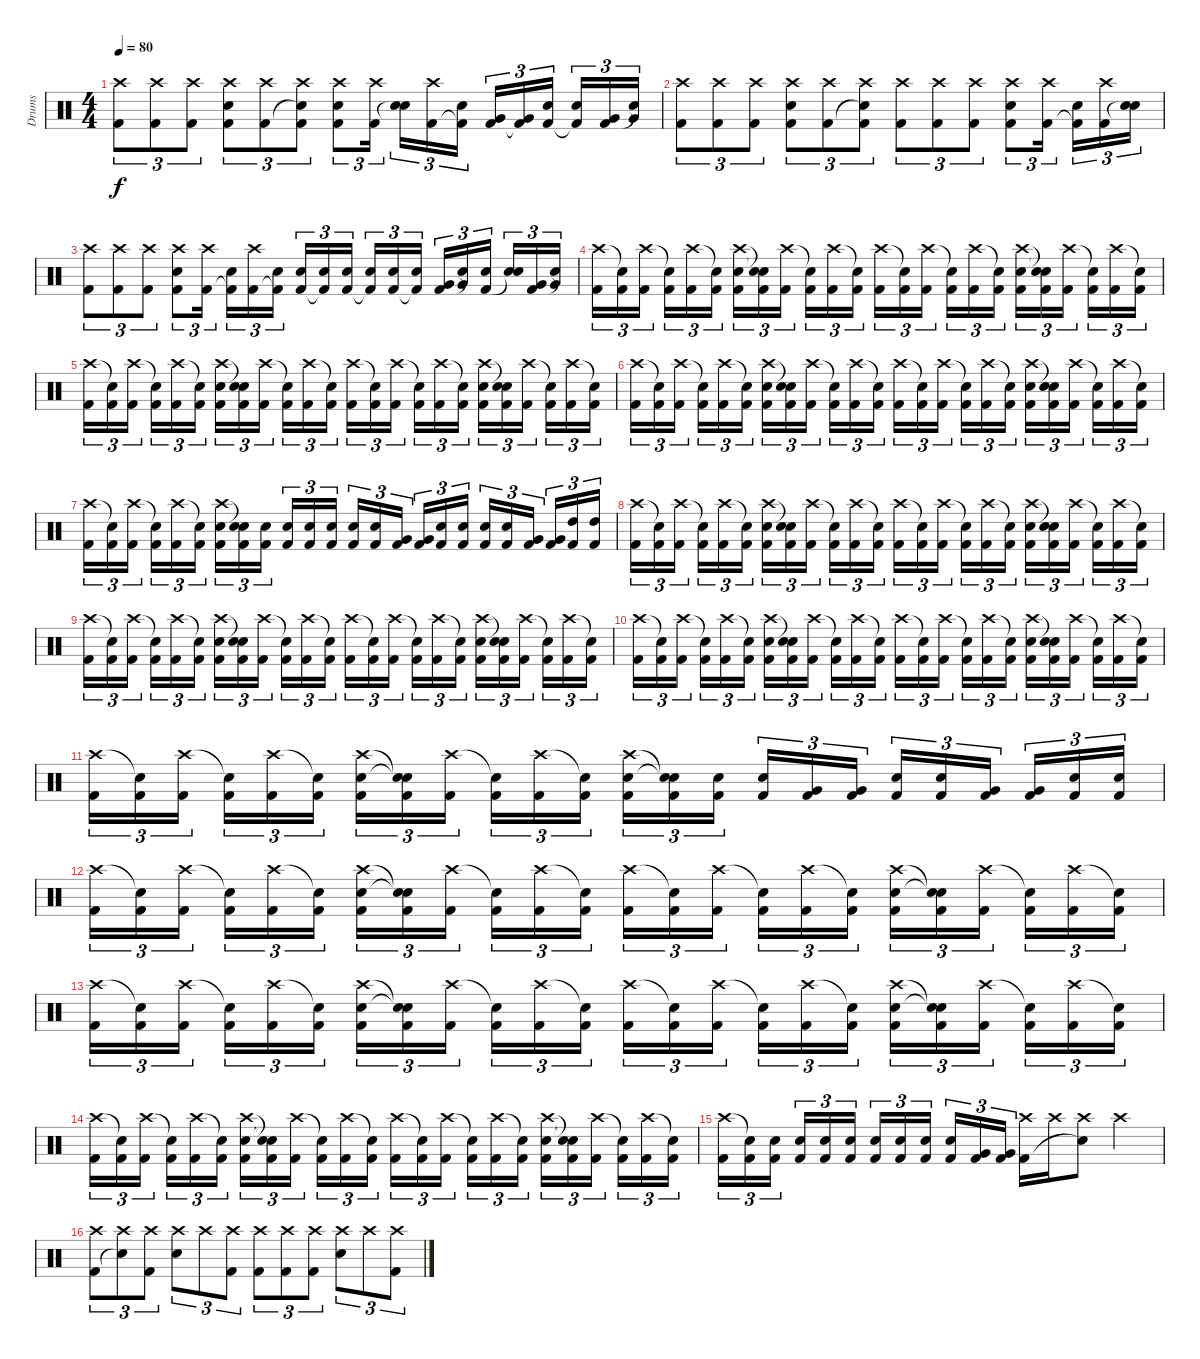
\track ("Drums" "Drums") {instrument percussion}
\staff {score}
\articulation defaults
\ts (4 4)
\tempo 80
\clef neutral
\ks c
("Crash high (hit)" "Kick (hit) 2").8{tu (3 2) dy f} ("Crash high (hit)" "Kick (hit) 2").8{tu (3 2)} ("Crash high (hit)" "Kick (hit) 2").8{tu (3 2)} ("Crash high (hit)" "Snare (hit) 2" "Kick (hit) 2").8{tu (3 2)} ("Crash high (hit)" "Kick (hit) 2").8{tu (3 2)} ("Crash high (hit)" "Snare (hit)"{t} "Kick (hit) 2").8{tu (3 2)} ("Crash high (hit)" "Snare (hit) 2" "Kick (hit) 2").8{tu (3 2)} ("Crash high (hit)" "Kick (hit) 2").16{tu (3 2)} ("Snare (hit) 2" "Snare (hit)"{t}).16{tu (3 2)} ("Crash high (hit)" "Kick (hit) 2").16{tu (3 2)} ("Snare (hit) 2" "Kick (hit) 2"{t}).16{tu (3 2)} ("Very Low Tom (hit)" "Kick (hit) 2").16{tu (3 2)} ("Very Low Tom (hit)" "Kick (hit) 2"{t}).16{tu (3 2)} ("Snare (hit) 2" "Kick (hit) 2").16{tu (3 2)} ("Snare (hit) 2" "Kick (hit) 2"{t}).16{tu (3 2)} ("Very Low Tom (hit)" "Kick (hit) 2").16{tu (3 2)} ("Very Low Tom (hit)" "Snare (hit)"{t}).16{tu (3 2)} |
("Crash high (hit)" "Kick (hit) 2").8{tu (3 2)} ("Crash high (hit)" "Kick (hit) 2").8{tu (3 2)} ("Crash high (hit)" "Kick (hit) 2").8{tu (3 2)} ("Crash high (hit)" "Snare (hit) 2" "Kick (hit) 2").8{tu (3 2)} ("Crash high (hit)" "Kick (hit) 2").8{tu (3 2)} ("Crash high (hit)" "Snare (hit)"{t} "Kick (hit) 2").8{tu (3 2)} ("Crash high (hit)" "Kick (hit) 2").8{tu (3 2)} ("Crash high (hit)" "Kick (hit) 2").8{tu (3 2)} ("Crash high (hit)" "Kick (hit) 2").8{tu (3 2)} ("Crash high (hit)" "Snare (hit) 2" "Kick (hit) 2").8{tu (3 2)} ("Crash high (hit)" "Kick (hit) 2").16{tu (3 2)} ("Snare (hit) 2" "Kick (hit) 2"{t}).16{tu (3 2)} ("Crash high (hit)" "Kick (hit) 2").16{tu (3 2)} ("Snare (hit) 2" "Snare (hit)"{t}).16{tu (3 2)} |
("Crash high (hit)" "Kick (hit) 2").8{tu (3 2)} ("Crash high (hit)" "Kick (hit) 2").8{tu (3 2)} ("Crash high (hit)" "Kick (hit) 2").8{tu (3 2)} ("Crash high (hit)" "Snare (hit) 2" "Kick (hit) 2").8{tu (3 2)} ("Crash high (hit)" "Kick (hit) 2").16{tu (3 2)} ("Snare (hit) 2" "Kick (hit) 2"{t}).16{tu (3 2)} ("Crash high (hit)" "Kick (hit) 2").16{tu (3 2)} ("Snare (hit) 2" "Kick (hit) 2"{t}).16{tu (3 2)} ("Snare (hit) 2" "Kick (hit) 2").16{tu (3 2)} ("Snare (hit) 2" "Kick (hit) 2"{t}).16{tu (3 2)} ("Snare (hit) 2" "Kick (hit) 2").16{tu (3 2)} ("Snare (hit) 2" "Kick (hit) 2"{t}).16{tu (3 2)} ("Snare (hit) 2" "Kick (hit) 2").16{tu (3 2)} ("Snare (hit) 2" "Kick (hit) 2"{t}).16{tu (3 2)} ("Very Low Tom (hit)" "Kick (hit) 2").16{tu (3 2)} ("Very Low Tom (hit)" "Snare (hit)"{t}).16{tu (3 2)} ("Snare (hit) 2" "Kick (hit) 2").16{tu (3 2)} ("Snare (hit) 2" "Snare (hit)"{t}).16{tu (3 2)} ("Very Low Tom (hit)" "Kick (hit) 2").16{tu (3 2)} ("Very Low Tom (hit)" "Snare (hit)"{t}).16{tu (3 2)} |
("Crash high (hit)" "Kick (hit) 2").16{tu (3 2)} ("Snare (hit)"{t} "Kick (hit) 2").16{tu (3 2)} ("Crash high (hit)" "Kick (hit) 2").16{tu (3 2)} ("Snare (hit)"{t} "Kick (hit) 2").16{tu (3 2)} ("Crash high (hit)" "Kick (hit) 2").16{tu (3 2)} ("Snare (hit)"{t} "Kick (hit) 2").16{tu (3 2)} ("Crash high (hit)" "Snare (hit) 2" "Kick (hit) 2").16{tu (3 2)} ("Snare (hit)"{t} "Snare (hit)"{t} "Kick (hit) 2").16{tu (3 2)} ("Crash high (hit)" "Kick (hit) 2").16{tu (3 2)} ("Snare (hit)"{t} "Kick (hit) 2").16{tu (3 2)} ("Crash high (hit)" "Kick (hit) 2").16{tu (3 2)} ("Snare (hit)"{t} "Kick (hit) 2").16{tu (3 2)} ("Crash high (hit)" "Kick (hit) 2").16{tu (3 2)} ("Snare (hit)"{t} "Kick (hit) 2").16{tu (3 2)} ("Crash high (hit)" "Kick (hit) 2").16{tu (3 2)} ("Snare (hit)"{t} "Kick (hit) 2").16{tu (3 2)} ("Crash high (hit)" "Kick (hit) 2").16{tu (3 2)} ("Snare (hit)"{t} "Kick (hit) 2").16{tu (3 2)} ("Crash high (hit)" "Snare (hit) 2" "Kick (hit) 2").16{tu (3 2)} ("Snare (hit)"{t} "Snare (hit)"{t} "Kick (hit) 2").16{tu (3 2)} ("Crash high (hit)" "Kick (hit) 2").16{tu (3 2)} ("Snare (hit)"{t} "Kick (hit) 2").16{tu (3 2)} ("Crash high (hit)" "Kick (hit) 2").16{tu (3 2)} ("Snare (hit)"{t} "Kick (hit) 2").16{tu (3 2)} |
("Crash high (hit)" "Kick (hit) 2").16{tu (3 2)} ("Snare (hit)"{t} "Kick (hit) 2").16{tu (3 2)} ("Crash high (hit)" "Kick (hit) 2").16{tu (3 2)} ("Snare (hit)"{t} "Kick (hit) 2").16{tu (3 2)} ("Crash high (hit)" "Kick (hit) 2").16{tu (3 2)} ("Snare (hit)"{t} "Kick (hit) 2").16{tu (3 2)} ("Crash high (hit)" "Snare (hit) 2" "Kick (hit) 2").16{tu (3 2)} ("Snare (hit)"{t} "Snare (hit)"{t} "Kick (hit) 2").16{tu (3 2)} ("Crash high (hit)" "Kick (hit) 2").16{tu (3 2)} ("Snare (hit)"{t} "Kick (hit) 2").16{tu (3 2)} ("Crash high (hit)" "Kick (hit) 2").16{tu (3 2)} ("Snare (hit)"{t} "Kick (hit) 2").16{tu (3 2)} ("Crash high (hit)" "Kick (hit) 2").16{tu (3 2)} ("Snare (hit)"{t} "Kick (hit) 2").16{tu (3 2)} ("Crash high (hit)" "Kick (hit) 2").16{tu (3 2)} ("Snare (hit)"{t} "Kick (hit) 2").16{tu (3 2)} ("Crash high (hit)" "Kick (hit) 2").16{tu (3 2)} ("Snare (hit)"{t} "Kick (hit) 2").16{tu (3 2)} ("Crash high (hit)" "Snare (hit) 2" "Kick (hit) 2").16{tu (3 2)} ("Snare (hit)"{t} "Snare (hit)"{t} "Kick (hit) 2").16{tu (3 2)} ("Crash high (hit)" "Kick (hit) 2").16{tu (3 2)} ("Snare (hit)"{t} "Kick (hit) 2").16{tu (3 2)} ("Crash high (hit)" "Kick (hit) 2").16{tu (3 2)} ("Snare (hit)"{t} "Kick (hit) 2").16{tu (3 2)} |
("Crash high (hit)" "Kick (hit) 2").16{tu (3 2)} ("Snare (hit)"{t} "Kick (hit) 2").16{tu (3 2)} ("Crash high (hit)" "Kick (hit) 2").16{tu (3 2)} ("Snare (hit)"{t} "Kick (hit) 2").16{tu (3 2)} ("Crash high (hit)" "Kick (hit) 2").16{tu (3 2)} ("Snare (hit)"{t} "Kick (hit) 2").16{tu (3 2)} ("Crash high (hit)" "Snare (hit) 2" "Kick (hit) 2").16{tu (3 2)} ("Snare (hit)"{t} "Snare (hit)"{t} "Kick (hit) 2").16{tu (3 2)} ("Crash high (hit)" "Kick (hit) 2").16{tu (3 2)} ("Snare (hit)"{t} "Kick (hit) 2").16{tu (3 2)} ("Crash high (hit)" "Kick (hit) 2").16{tu (3 2)} ("Snare (hit)"{t} "Kick (hit) 2").16{tu (3 2)} ("Crash high (hit)" "Kick (hit) 2").16{tu (3 2)} ("Snare (hit)"{t} "Kick (hit) 2").16{tu (3 2)} ("Crash high (hit)" "Kick (hit) 2").16{tu (3 2)} ("Snare (hit)"{t} "Kick (hit) 2").16{tu (3 2)} ("Crash high (hit)" "Kick (hit) 2").16{tu (3 2)} ("Snare (hit)"{t} "Kick (hit) 2").16{tu (3 2)} ("Crash high (hit)" "Snare (hit) 2" "Kick (hit) 2").16{tu (3 2)} ("Snare (hit)"{t} "Snare (hit)"{t} "Kick (hit) 2").16{tu (3 2)} ("Crash high (hit)" "Kick (hit) 2").16{tu (3 2)} ("Snare (hit)"{t} "Kick (hit) 2").16{tu (3 2)} ("Crash high (hit)" "Kick (hit) 2").16{tu (3 2)} ("Snare (hit)"{t} "Kick (hit) 2").16{tu (3 2)} |
("Crash high (hit)" "Kick (hit) 2").16{tu (3 2)} ("Snare (hit)"{t} "Kick (hit) 2").16{tu (3 2)} ("Crash high (hit)" "Kick (hit) 2").16{tu (3 2)} ("Snare (hit)"{t} "Kick (hit) 2").16{tu (3 2)} ("Crash high (hit)" "Kick (hit) 2").16{tu (3 2)} ("Snare (hit)"{t} "Kick (hit) 2").16{tu (3 2)} ("Crash high (hit)" "Snare (hit) 2" "Kick (hit) 2").16{tu (3 2)} ("Snare (hit)"{t} "Snare (hit)"{t} "Kick (hit) 2").16{tu (3 2)} ("Snare (hit) 2" "Kick (hit) 2").16{tu (3 2)} ("Snare (hit) 2" "Kick (hit) 2").16{tu (3 2)} ("Snare (hit) 2" "Kick (hit) 2").16{tu (3 2)} ("Snare (hit) 2" "Kick (hit) 2").16{tu (3 2)} ("Snare (hit) 2" "Kick (hit) 2").16{tu (3 2)} ("Snare (hit) 2" "Kick (hit) 2").16{tu (3 2)} ("Very Low Tom (hit)" "Kick (hit) 2").16{tu (3 2)} ("Very Low Tom (hit)" "Kick (hit) 2").16{tu (3 2)} ("Snare (hit) 2" "Kick (hit) 2").16{tu (3 2)} ("Snare (hit) 2" "Kick (hit) 2").16{tu (3 2)} ("Snare (hit) 2" "Kick (hit) 2").16{tu (3 2)} ("Snare (hit) 2" "Kick (hit) 2").16{tu (3 2)} ("Very Low Tom (hit)" "Kick (hit) 2").16{tu (3 2)} ("Very Low Tom (hit)" "Kick (hit) 2").16{tu (3 2)} ("High Tom (hit)" "Kick (hit) 2").16{tu (3 2)} ("High Tom (hit)" "Kick (hit) 2").16{tu (3 2)} |
("Crash high (hit)" "Kick (hit) 2").16{tu (3 2)} ("Snare (hit)"{t} "Kick (hit) 2").16{tu (3 2)} ("Crash high (hit)" "Kick (hit) 2").16{tu (3 2)} ("Snare (hit)"{t} "Kick (hit) 2").16{tu (3 2)} ("Crash high (hit)" "Kick (hit) 2").16{tu (3 2)} ("Snare (hit)"{t} "Kick (hit) 2").16{tu (3 2)} ("Crash high (hit)" "Snare (hit) 2" "Kick (hit) 2").16{tu (3 2)} ("Snare (hit)"{t} "Snare (hit)"{t} "Kick (hit) 2").16{tu (3 2)} ("Crash high (hit)" "Kick (hit) 2").16{tu (3 2)} ("Snare (hit)"{t} "Kick (hit) 2").16{tu (3 2)} ("Crash high (hit)" "Kick (hit) 2").16{tu (3 2)} ("Snare (hit)"{t} "Kick (hit) 2").16{tu (3 2)} ("Crash high (hit)" "Kick (hit) 2").16{tu (3 2)} ("Snare (hit)"{t} "Kick (hit) 2").16{tu (3 2)} ("Crash high (hit)" "Kick (hit) 2").16{tu (3 2)} ("Snare (hit)"{t} "Kick (hit) 2").16{tu (3 2)} ("Crash high (hit)" "Kick (hit) 2").16{tu (3 2)} ("Snare (hit)"{t} "Kick (hit) 2").16{tu (3 2)} ("Crash high (hit)" "Snare (hit) 2" "Kick (hit) 2").16{tu (3 2)} ("Snare (hit)"{t} "Snare (hit)"{t} "Kick (hit) 2").16{tu (3 2)} ("Crash high (hit)" "Kick (hit) 2").16{tu (3 2)} ("Snare (hit)"{t} "Kick (hit) 2").16{tu (3 2)} ("Crash high (hit)" "Kick (hit) 2").16{tu (3 2)} ("Snare (hit)"{t} "Kick (hit) 2").16{tu (3 2)} |
("Crash high (hit)" "Kick (hit) 2").16{tu (3 2)} ("Snare (hit)"{t} "Kick (hit) 2").16{tu (3 2)} ("Crash high (hit)" "Kick (hit) 2").16{tu (3 2)} ("Snare (hit)"{t} "Kick (hit) 2").16{tu (3 2)} ("Crash high (hit)" "Kick (hit) 2").16{tu (3 2)} ("Snare (hit)"{t} "Kick (hit) 2").16{tu (3 2)} ("Crash high (hit)" "Snare (hit) 2" "Kick (hit) 2").16{tu (3 2)} ("Snare (hit)"{t} "Snare (hit)"{t} "Kick (hit) 2").16{tu (3 2)} ("Crash high (hit)" "Kick (hit) 2").16{tu (3 2)} ("Snare (hit)"{t} "Kick (hit) 2").16{tu (3 2)} ("Crash high (hit)" "Kick (hit) 2").16{tu (3 2)} ("Snare (hit)"{t} "Kick (hit) 2").16{tu (3 2)} ("Crash high (hit)" "Kick (hit) 2").16{tu (3 2)} ("Snare (hit)"{t} "Kick (hit) 2").16{tu (3 2)} ("Crash high (hit)" "Kick (hit) 2").16{tu (3 2)} ("Snare (hit)"{t} "Kick (hit) 2").16{tu (3 2)} ("Crash high (hit)" "Kick (hit) 2").16{tu (3 2)} ("Snare (hit)"{t} "Kick (hit) 2").16{tu (3 2)} ("Crash high (hit)" "Snare (hit) 2" "Kick (hit) 2").16{tu (3 2)} ("Snare (hit)"{t} "Snare (hit)"{t} "Kick (hit) 2").16{tu (3 2)} ("Crash high (hit)" "Kick (hit) 2").16{tu (3 2)} ("Snare (hit)"{t} "Kick (hit) 2").16{tu (3 2)} ("Crash high (hit)" "Kick (hit) 2").16{tu (3 2)} ("Snare (hit)"{t} "Kick (hit) 2").16{tu (3 2)} |
("Crash high (hit)" "Kick (hit) 2").16{tu (3 2)} ("Snare (hit)"{t} "Kick (hit) 2").16{tu (3 2)} ("Crash high (hit)" "Kick (hit) 2").16{tu (3 2)} ("Snare (hit)"{t} "Kick (hit) 2").16{tu (3 2)} ("Crash high (hit)" "Kick (hit) 2").16{tu (3 2)} ("Snare (hit)"{t} "Kick (hit) 2").16{tu (3 2)} ("Crash high (hit)" "Snare (hit) 2" "Kick (hit) 2").16{tu (3 2)} ("Snare (hit)"{t} "Snare (hit)"{t} "Kick (hit) 2").16{tu (3 2)} ("Crash high (hit)" "Kick (hit) 2").16{tu (3 2)} ("Snare (hit)"{t} "Kick (hit) 2").16{tu (3 2)} ("Crash high (hit)" "Kick (hit) 2").16{tu (3 2)} ("Snare (hit)"{t} "Kick (hit) 2").16{tu (3 2)} ("Crash high (hit)" "Kick (hit) 2").16{tu (3 2)} ("Snare (hit)"{t} "Kick (hit) 2").16{tu (3 2)} ("Crash high (hit)" "Kick (hit) 2").16{tu (3 2)} ("Snare (hit)"{t} "Kick (hit) 2").16{tu (3 2)} ("Crash high (hit)" "Kick (hit) 2").16{tu (3 2)} ("Snare (hit)"{t} "Kick (hit) 2").16{tu (3 2)} ("Crash high (hit)" "Snare (hit) 2" "Kick (hit) 2").16{tu (3 2)} ("Snare (hit)"{t} "Snare (hit)"{t} "Kick (hit) 2").16{tu (3 2)} ("Crash high (hit)" "Kick (hit) 2").16{tu (3 2)} ("Snare (hit)"{t} "Kick (hit) 2").16{tu (3 2)} ("Crash high (hit)" "Kick (hit) 2").16{tu (3 2)} ("Snare (hit)"{t} "Kick (hit) 2").16{tu (3 2)} |
("Crash high (hit)" "Kick (hit) 2").16{tu (3 2)} ("Snare (hit)"{t} "Kick (hit) 2").16{tu (3 2)} ("Crash high (hit)" "Kick (hit) 2").16{tu (3 2)} ("Snare (hit)"{t} "Kick (hit) 2").16{tu (3 2)} ("Crash high (hit)" "Kick (hit) 2").16{tu (3 2)} ("Snare (hit)"{t} "Kick (hit) 2").16{tu (3 2)} ("Crash high (hit)" "Snare (hit) 2" "Kick (hit) 2").16{tu (3 2)} ("Snare (hit)"{t} "Snare (hit)"{t} "Kick (hit) 2").16{tu (3 2)} ("Crash high (hit)" "Kick (hit) 2").16{tu (3 2)} ("Snare (hit)"{t} "Kick (hit) 2").16{tu (3 2)} ("Crash high (hit)" "Kick (hit) 2").16{tu (3 2)} ("Snare (hit)"{t} "Kick (hit) 2").16{tu (3 2)} ("Crash high (hit)" "Snare (hit) 2" "Kick (hit) 2").16{tu (3 2)} ("Snare (hit)"{t} "Snare (hit)"{t} "Kick (hit) 2").16{tu (3 2)} ("Snare (hit) 2" "Kick (hit) 2").16{tu (3 2)} ("Snare (hit) 2" "Kick (hit) 2").16{tu (3 2)} ("Very Low Tom (hit)" "Kick (hit) 2").16{tu (3 2)} ("Very Low Tom (hit)" "Kick (hit) 2").16{tu (3 2)} ("Snare (hit) 2" "Kick (hit) 2").16{tu (3 2)} ("Snare (hit) 2" "Kick (hit) 2").16{tu (3 2)} ("Very Low Tom (hit)" "Kick (hit) 2").16{tu (3 2)} ("Very Low Tom (hit)" "Kick (hit) 2").16{tu (3 2)} ("Snare (hit) 2" "Kick (hit) 2").16{tu (3 2)} ("Snare (hit) 2" "Kick (hit) 2").16{tu (3 2)} |
("Crash high (hit)" "Kick (hit) 2").16{tu (3 2)} ("Snare (hit)"{t} "Kick (hit) 2").16{tu (3 2)} ("Crash high (hit)" "Kick (hit) 2").16{tu (3 2)} ("Snare (hit)"{t} "Kick (hit) 2").16{tu (3 2)} ("Crash high (hit)" "Kick (hit) 2").16{tu (3 2)} ("Snare (hit)"{t} "Kick (hit) 2").16{tu (3 2)} ("Crash high (hit)" "Snare (hit) 2" "Kick (hit) 2").16{tu (3 2)} ("Snare (hit)"{t} "Snare (hit)"{t} "Kick (hit) 2").16{tu (3 2)} ("Crash high (hit)" "Kick (hit) 2").16{tu (3 2)} ("Snare (hit)"{t} "Kick (hit) 2").16{tu (3 2)} ("Crash high (hit)" "Kick (hit) 2").16{tu (3 2)} ("Snare (hit)"{t} "Kick (hit) 2").16{tu (3 2)} ("Crash high (hit)" "Kick (hit) 2").16{tu (3 2)} ("Snare (hit)"{t} "Kick (hit) 2").16{tu (3 2)} ("Crash high (hit)" "Kick (hit) 2").16{tu (3 2)} ("Snare (hit)"{t} "Kick (hit) 2").16{tu (3 2)} ("Crash high (hit)" "Kick (hit) 2").16{tu (3 2)} ("Snare (hit)"{t} "Kick (hit) 2").16{tu (3 2)} ("Crash high (hit)" "Snare (hit) 2" "Kick (hit) 2").16{tu (3 2)} ("Snare (hit)"{t} "Snare (hit)"{t} "Kick (hit) 2").16{tu (3 2)} ("Crash high (hit)" "Kick (hit) 2").16{tu (3 2)} ("Snare (hit)"{t} "Kick (hit) 2").16{tu (3 2)} ("Crash high (hit)" "Kick (hit) 2").16{tu (3 2)} ("Snare (hit)"{t} "Kick (hit) 2").16{tu (3 2)} |
("Crash high (hit)" "Kick (hit) 2").16{tu (3 2)} ("Snare (hit)"{t} "Kick (hit) 2").16{tu (3 2)} ("Crash high (hit)" "Kick (hit) 2").16{tu (3 2)} ("Snare (hit)"{t} "Kick (hit) 2").16{tu (3 2)} ("Crash high (hit)" "Kick (hit) 2").16{tu (3 2)} ("Snare (hit)"{t} "Kick (hit) 2").16{tu (3 2)} ("Crash high (hit)" "Snare (hit) 2" "Kick (hit) 2").16{tu (3 2)} ("Snare (hit)"{t} "Snare (hit)"{t} "Kick (hit) 2").16{tu (3 2)} ("Crash high (hit)" "Kick (hit) 2").16{tu (3 2)} ("Snare (hit)"{t} "Kick (hit) 2").16{tu (3 2)} ("Crash high (hit)" "Kick (hit) 2").16{tu (3 2)} ("Snare (hit)"{t} "Kick (hit) 2").16{tu (3 2)} ("Crash high (hit)" "Kick (hit) 2").16{tu (3 2)} ("Snare (hit)"{t} "Kick (hit) 2").16{tu (3 2)} ("Crash high (hit)" "Kick (hit) 2").16{tu (3 2)} ("Snare (hit)"{t} "Kick (hit) 2").16{tu (3 2)} ("Crash high (hit)" "Kick (hit) 2").16{tu (3 2)} ("Snare (hit)"{t} "Kick (hit) 2").16{tu (3 2)} ("Crash high (hit)" "Snare (hit) 2" "Kick (hit) 2").16{tu (3 2)} ("Snare (hit)"{t} "Snare (hit)"{t} "Kick (hit) 2").16{tu (3 2)} ("Crash high (hit)" "Kick (hit) 2").16{tu (3 2)} ("Snare (hit)"{t} "Kick (hit) 2").16{tu (3 2)} ("Crash high (hit)" "Kick (hit) 2").16{tu (3 2)} ("Snare (hit)"{t} "Kick (hit) 2").16{tu (3 2)} |
("Crash high (hit)" "Kick (hit) 2").16{tu (3 2)} ("Snare (hit)"{t} "Kick (hit) 2").16{tu (3 2)} ("Crash high (hit)" "Kick (hit) 2").16{tu (3 2)} ("Snare (hit)"{t} "Kick (hit) 2").16{tu (3 2)} ("Crash high (hit)" "Kick (hit) 2").16{tu (3 2)} ("Snare (hit)"{t} "Kick (hit) 2").16{tu (3 2)} ("Crash high (hit)" "Snare (hit) 2" "Kick (hit) 2").16{tu (3 2)} ("Snare (hit)"{t} "Snare (hit)"{t} "Kick (hit) 2").16{tu (3 2)} ("Crash high (hit)" "Kick (hit) 2").16{tu (3 2)} ("Snare (hit)"{t} "Kick (hit) 2").16{tu (3 2)} ("Crash high (hit)" "Kick (hit) 2").16{tu (3 2)} ("Snare (hit)"{t} "Kick (hit) 2").16{tu (3 2)} ("Crash high (hit)" "Kick (hit) 2").16{tu (3 2)} ("Snare (hit)"{t} "Kick (hit) 2").16{tu (3 2)} ("Crash high (hit)" "Kick (hit) 2").16{tu (3 2)} ("Snare (hit)"{t} "Kick (hit) 2").16{tu (3 2)} ("Crash high (hit)" "Kick (hit) 2").16{tu (3 2)} ("Snare (hit)"{t} "Kick (hit) 2").16{tu (3 2)} ("Crash high (hit)" "Snare (hit) 2" "Kick (hit) 2").16{tu (3 2)} ("Snare (hit)"{t} "Snare (hit)"{t} "Kick (hit) 2").16{tu (3 2)} ("Crash high (hit)" "Kick (hit) 2").16{tu (3 2)} ("Snare (hit)"{t} "Kick (hit) 2").16{tu (3 2)} ("Crash high (hit)" "Kick (hit) 2").16{tu (3 2)} ("Snare (hit)"{t} "Kick (hit) 2").16{tu (3 2)} |
("Crash high (hit)" "Kick (hit) 2").16{tu (3 2)} ("Snare (hit)"{t} "Kick (hit) 2").16{tu (3 2)} ("Snare (hit) 2" "Kick (hit) 2").16{tu (3 2)} ("Snare (hit) 2" "Kick (hit) 2").16{tu (3 2)} ("Snare (hit) 2" "Kick (hit) 2").16{tu (3 2)} ("Snare (hit) 2" "Kick (hit) 2").16{tu (3 2)} ("Snare (hit) 2" "Kick (hit) 2").16{tu (3 2)} ("Snare (hit) 2" "Kick (hit) 2").16{tu (3 2)} ("Snare (hit) 2" "Kick (hit) 2").16{tu (3 2)} ("Snare (hit) 2" "Kick (hit) 2").16{tu (3 2)} ("Very Low Tom (hit)" "Kick (hit) 2").16{tu (3 2)} ("Very Low Tom (hit)" "Kick (hit) 2").16{tu (3 2)} ("Crash high (hit)" "Kick (hit) 2").16 "Crash high (hit)".16 ("Crash high (hit)" "Snare (hit)"{t}).8 "Crash high (hit)".4 |
("Crash high (hit)" "Kick (hit) 2").8{tu (3 2)} ("Crash high (hit)" "Snare (hit)"{t}).8{tu (3 2)} ("Crash high (hit)" "Kick (hit) 2").8{tu (3 2)} ("Crash high (hit)" "Snare (hit) 2").8{tu (3 2)} "Crash high (hit)".8{tu (3 2)} ("Crash high (hit)" "Kick (hit) 2").8{tu (3 2)} ("Crash high (hit)" "Kick (hit) 2").8{tu (3 2)} ("Crash high (hit)" "Kick (hit) 2").8{tu (3 2)} ("Crash high (hit)" "Kick (hit) 2").8{tu (3 2)} ("Crash high (hit)" "Snare (hit) 2").8{tu (3 2)} "Crash high (hit)".8{tu (3 2)} ("Crash high (hit)" "Kick (hit) 2").8{tu (3 2)}
